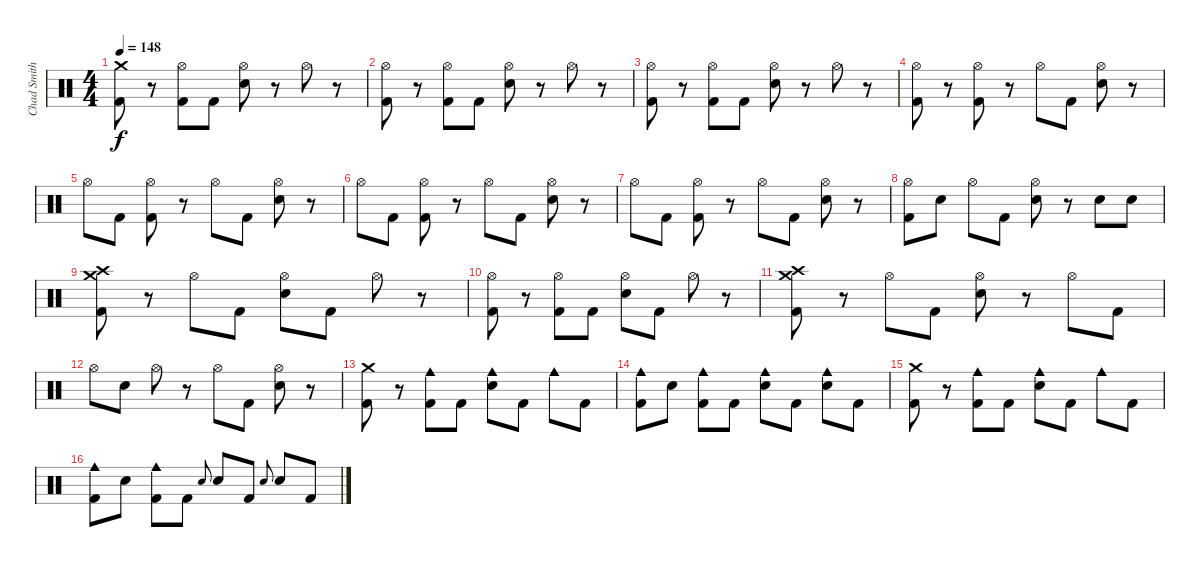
\track ("Chad Smith" "Chad Smith") {instrument percussion}
\staff {score}
\articulation defaults
\ts (4 4)
\tempo 148
\clef neutral
\ks c
("Crash medium (hit)" "Kick (hit) 2").8{dy f} r.8 ("Hi-Hat (open)" "Kick (hit) 2").8 "Kick (hit) 2".8 ("Hi-Hat (open)" "Snare (hit) 2").8 r.8 "Hi-Hat (open)".8 r.8 |
("Hi-Hat (open)" "Kick (hit) 2").8 r.8 ("Hi-Hat (open)" "Kick (hit) 2").8 "Kick (hit) 2".8 ("Hi-Hat (open)" "Snare (hit) 2").8 r.8 "Hi-Hat (open)".8 r.8 |
("Hi-Hat (open)" "Kick (hit) 2").8 r.8 ("Hi-Hat (open)" "Kick (hit) 2").8 "Kick (hit) 2".8 ("Hi-Hat (open)" "Snare (hit) 2").8 r.8 "Hi-Hat (open)".8 r.8 |
("Hi-Hat (open)" "Kick (hit) 2").8 r.8 ("Hi-Hat (open)" "Kick (hit) 2").8 r.8 "Hi-Hat (open)".8 "Kick (hit) 2".8 ("Hi-Hat (open)" "Snare (hit) 2").8 r.8 |
"Hi-Hat (open)".8 "Kick (hit) 2".8 ("Hi-Hat (open)" "Kick (hit) 2").8 r.8 "Hi-Hat (open)".8 "Kick (hit) 2".8 ("Hi-Hat (open)" "Snare (hit) 2").8 r.8 |
"Hi-Hat (open)".8 "Kick (hit) 2".8 ("Hi-Hat (open)" "Kick (hit) 2").8 r.8 "Hi-Hat (open)".8 "Kick (hit) 2".8 ("Hi-Hat (open)" "Snare (hit) 2").8 r.8 |
"Hi-Hat (open)".8 "Kick (hit) 2".8 ("Hi-Hat (open)" "Kick (hit) 2").8 r.8 "Hi-Hat (open)".8 "Kick (hit) 2".8 ("Hi-Hat (open)" "Snare (hit) 2").8 r.8 |
("Hi-Hat (open)" "Kick (hit) 2").8 "Snare (hit) 2".8 "Hi-Hat (open)".8 "Kick (hit) 2".8 ("Hi-Hat (open)" "Snare (hit) 2").8 r.8 "Snare (hit) 2".8 "Snare (hit) 2".8 |
("Crash medium (hit)" "Crash high (hit)" "Kick (hit) 2").8 r.8 "Hi-Hat (open)".8 "Kick (hit) 2".8 ("Hi-Hat (open)" "Snare (hit) 2").8 "Kick (hit) 2".8 "Hi-Hat (open)".8 r.8 |
("Hi-Hat (open)" "Kick (hit) 2").8 r.8 ("Hi-Hat (open)" "Kick (hit) 2").8 "Kick (hit) 2".8 ("Hi-Hat (open)" "Snare (hit) 2").8 "Kick (hit) 2".8 "Hi-Hat (open)".8 r.8 |
("Crash medium (hit)" "Crash high (hit)" "Kick (hit) 2").8 r.8 "Hi-Hat (open)".8 "Kick (hit) 2".8 ("Hi-Hat (open)" "Snare (hit) 2").8 r.8 "Hi-Hat (open)".8 "Kick (hit) 2".8 |
"Hi-Hat (open)".8 "Snare (hit) 2".8 "Hi-Hat (open)".8 r.8 "Hi-Hat (open)".8 "Kick (hit) 2".8 ("Hi-Hat (open)" "Snare (hit) 2").8 r.8 |
("Crash medium (hit)" "Kick (hit) 2").8 r.8 ("Cowbell medium (hit)" "Kick (hit) 2").8 "Kick (hit) 2".8 ("Cowbell medium (hit)" "Snare (hit) 2").8 "Kick (hit) 2".8 "Cowbell medium (hit)".8 "Kick (hit) 2".8 |
("Cowbell medium (hit)" "Kick (hit) 2").8 "Snare (hit) 2".8 ("Cowbell medium (hit)" "Kick (hit) 2").8 "Kick (hit) 2".8 ("Cowbell medium (hit)" "Snare (hit) 2").8 "Kick (hit) 2".8 ("Cowbell medium (hit)" "Snare (hit) 2").8 "Kick (hit) 2".8 |
("Crash medium (hit)" "Kick (hit) 2").8 r.8 ("Cowbell medium (hit)" "Kick (hit) 2").8 "Kick (hit) 2".8 ("Cowbell medium (hit)" "Snare (hit) 2").8 "Kick (hit) 2".8 "Cowbell medium (hit)".8 "Kick (hit) 2".8 |
("Cowbell medium (hit)" "Kick (hit) 2").8 "Snare (hit) 2".8 ("Cowbell medium (hit)" "Kick (hit) 2").8 "Kick (hit) 2".8 "Snare (hit) 2".8{gr onbeat} "Snare (hit) 2".8 "Kick (hit) 2".8 "Snare (hit) 2".8{gr onbeat} "Snare (hit) 2".8 "Kick (hit) 2".8
